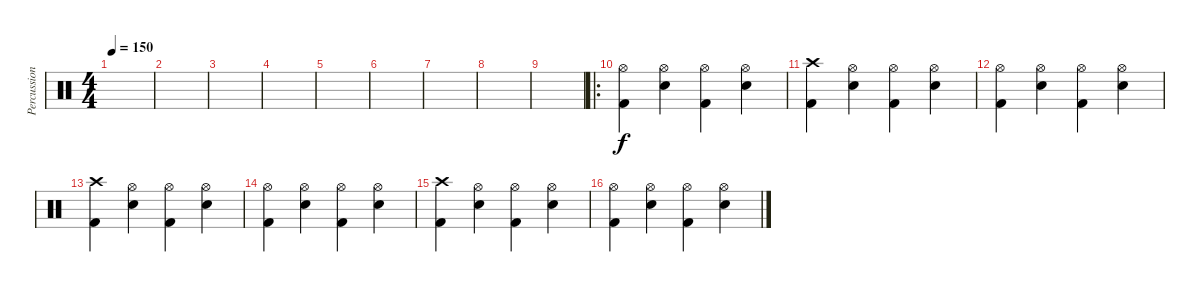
\track ("Percussion" "Percussion") {instrument percussion}
\staff {score}
\articulation defaults
\ts (4 4)
\tempo 150
\clef neutral
\ks c
|
|
|
|
|
|
|
|
|
\ro
("Hi-Hat (open)" "Kick (hit) 2").4 ("Hi-Hat (open)" "Electric Snare (hit)").4 ("Hi-Hat (open)" "Kick (hit) 2").4 ("Hi-Hat (open)" "Electric Snare (hit)").4 |
("Crash high (hit)" "Kick (hit) 2").4 ("Hi-Hat (open)" "Electric Snare (hit)").4 ("Hi-Hat (open)" "Kick (hit) 2").4 ("Hi-Hat (open)" "Electric Snare (hit)").4 |
("Hi-Hat (open)" "Kick (hit) 2").4 ("Hi-Hat (open)" "Electric Snare (hit)").4 ("Hi-Hat (open)" "Kick (hit) 2").4 ("Hi-Hat (open)" "Electric Snare (hit)").4 |
("Crash high (hit)" "Kick (hit) 2").4 ("Hi-Hat (open)" "Electric Snare (hit)").4 ("Hi-Hat (open)" "Kick (hit) 2").4 ("Hi-Hat (open)" "Electric Snare (hit)").4 |
("Hi-Hat (open)" "Kick (hit) 2").4 ("Hi-Hat (open)" "Electric Snare (hit)").4 ("Hi-Hat (open)" "Kick (hit) 2").4 ("Hi-Hat (open)" "Electric Snare (hit)").4 |
("Crash high (hit)" "Kick (hit) 2").4 ("Hi-Hat (open)" "Electric Snare (hit)").4 ("Hi-Hat (open)" "Kick (hit) 2").4 ("Hi-Hat (open)" "Electric Snare (hit)").4 |
("Hi-Hat (open)" "Kick (hit) 2").4 ("Hi-Hat (open)" "Electric Snare (hit)").4 ("Hi-Hat (open)" "Kick (hit) 2").4 ("Hi-Hat (open)" "Electric Snare (hit)").4
